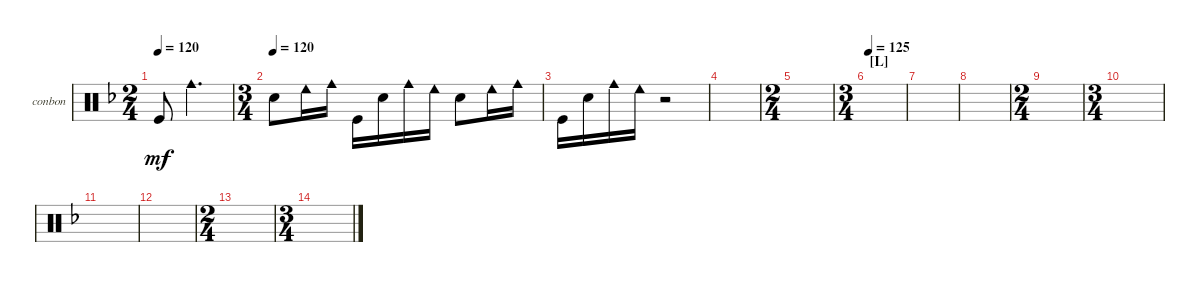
\defaultSystemsLayout 4
\bracketExtendMode groupsimilarinstruments
\firstSystemTrackNameOrientation horizontal
\otherSystemsTrackNameOrientation horizontal
\track ("Bongos N Congas" "conbon") {instrument percussion}
\staff {score}
\articulation defaults
\ts (2 4)
\tempo 120
\clef neutral
\ks f "Kick (hit)".8{dy mf} "Cowbell medium (hit)".4{d}
|
\ts (3 4)
\tempo (120)
"Snare (hit) 2".8 "Cowbell low (hit)".16 "Cowbell medium (hit)".16 "Kick (hit)".16 "Snare (hit) 2".16 "Cowbell medium (hit)".16 "Cowbell low (hit)".16 "Snare (hit) 2".8 "Cowbell low (hit)".16 "Cowbell medium (hit)".16 |
"Kick (hit)".16 "Snare (hit) 2".16 "Cowbell medium (hit)".16 "Cowbell low (hit)".16 r.2 |
|
\ts (2 4)
|
\ts (3 4)
\section ("L" "")
\tempo 125
|
|
|
\ts (2 4)
|
\ts (3 4)
|
|
|
\ts (2 4)
|
\ts (3 4)
